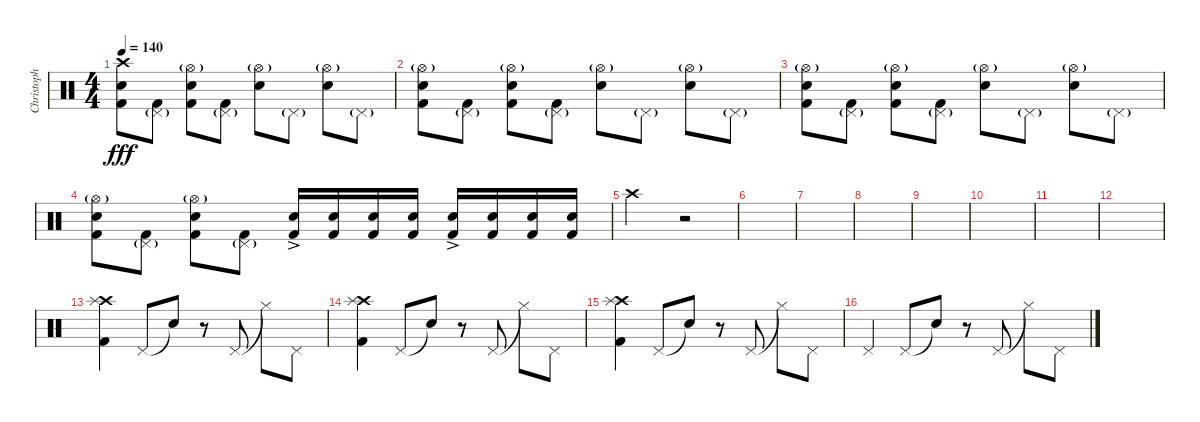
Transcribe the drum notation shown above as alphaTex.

\track ("Christoph" "Christoph") {instrument percussion}
\staff {score}
\articulation defaults
\ts (4 4)
\tempo 140
\clef neutral
\ks c
("Crash high (hit)" "Electric Snare (hit)" "Kick (hit) 2").8{dy fff} ("Pedal Hi-Hat (hit)"{g} "Kick (hit) 2").8 ("Hi-Hat (open)"{g} "Electric Snare (hit)" "Kick (hit) 2").8 ("Pedal Hi-Hat (hit)"{g} "Kick (hit) 2").8 ("Hi-Hat (open)"{g} "Electric Snare (hit)").8 "Pedal Hi-Hat (hit)"{g}.8 ("Hi-Hat (open)"{g} "Electric Snare (hit)").8 "Pedal Hi-Hat (hit)"{g}.8 |
("Hi-Hat (open)"{g} "Electric Snare (hit)" "Kick (hit) 2").8 ("Pedal Hi-Hat (hit)"{g} "Kick (hit) 2").8 ("Hi-Hat (open)"{g} "Electric Snare (hit)" "Kick (hit) 2").8 ("Pedal Hi-Hat (hit)"{g} "Kick (hit) 2").8 ("Hi-Hat (open)"{g} "Electric Snare (hit)").8 "Pedal Hi-Hat (hit)"{g}.8 ("Hi-Hat (open)"{g} "Electric Snare (hit)").8 "Pedal Hi-Hat (hit)"{g}.8 |
("Hi-Hat (open)"{g} "Electric Snare (hit)" "Kick (hit) 2").8 ("Pedal Hi-Hat (hit)"{g} "Kick (hit) 2").8 ("Hi-Hat (open)"{g} "Electric Snare (hit)" "Kick (hit) 2").8 ("Pedal Hi-Hat (hit)"{g} "Kick (hit) 2").8 ("Hi-Hat (open)"{g} "Electric Snare (hit)").8 "Pedal Hi-Hat (hit)"{g}.8 ("Hi-Hat (open)"{g} "Electric Snare (hit)").8 "Pedal Hi-Hat (hit)"{g}.8 |
("Hi-Hat (open)"{g} "Electric Snare (hit)" "Kick (hit) 2").8 ("Pedal Hi-Hat (hit)"{g} "Kick (hit) 2").8 ("Hi-Hat (open)"{g} "Electric Snare (hit)" "Kick (hit) 2").8 ("Pedal Hi-Hat (hit)"{g} "Kick (hit) 2").8 ("Electric Snare (hit)"{ac} "Kick (hit) 2").16 ("Electric Snare (hit)" "Kick (hit) 2").16 ("Electric Snare (hit)" "Kick (hit) 2").16 ("Electric Snare (hit)" "Kick (hit) 2").16 ("Electric Snare (hit)"{ac} "Kick (hit) 2").16 ("Electric Snare (hit)" "Kick (hit) 2").16 ("Electric Snare (hit)" "Kick (hit) 2").16 ("Electric Snare (hit)" "Kick (hit) 2").16 |
"Crash high (hit)".2 r.2 |
|
|
|
|
|
|
|
("Crash high (hit)" "Splash (hit)" "Kick (hit) 2").4 "Pedal Hi-Hat (hit)".8 "Snare (hit)"{t}.8 r.8 "Pedal Hi-Hat (hit)".8 "Hi-Hat (closed)"{t}.8 "Pedal Hi-Hat (hit)".8 |
("Crash high (hit)" "Splash (hit)" "Kick (hit) 2").4 "Pedal Hi-Hat (hit)".8 "Snare (hit)"{t}.8 r.8 "Pedal Hi-Hat (hit)".8 "Hi-Hat (closed)"{t}.8 "Pedal Hi-Hat (hit)".8 |
("Crash high (hit)" "Splash (hit)" "Kick (hit) 2").4 "Pedal Hi-Hat (hit)".8 "Snare (hit)"{t}.8 r.8 "Pedal Hi-Hat (hit)".8 "Hi-Hat (closed)"{t}.8 "Pedal Hi-Hat (hit)".8 |
"Pedal Hi-Hat (hit)".4 "Pedal Hi-Hat (hit)".8 "Snare (hit)"{t}.8 r.8 "Pedal Hi-Hat (hit)".8 "Hi-Hat (closed)"{t}.8 "Pedal Hi-Hat (hit)".8
